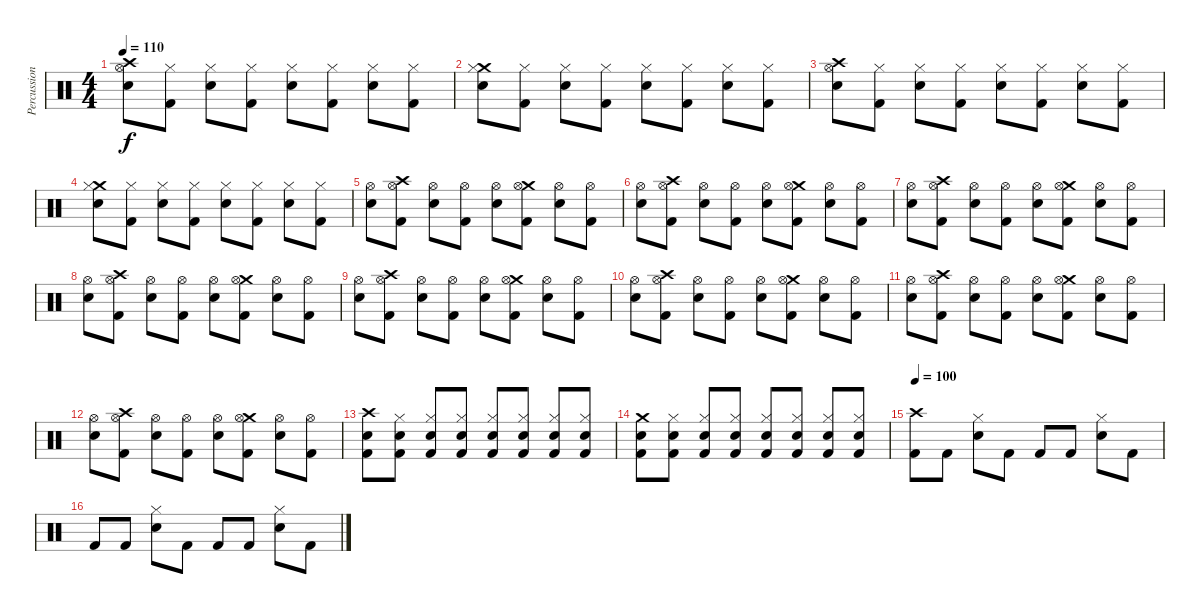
\track ("Percussion" "Percussion") {instrument percussion}
\staff {score}
\articulation defaults
\ts (4 4)
\tempo 110
\clef neutral
\ks c
("Crash high (hit)" "Hi-Hat (open)" "Electric Snare (hit)").8{dy f} ("Hi-Hat (closed)" "Kick (hit) 2").8 ("Hi-Hat (closed)" "Electric Snare (hit)").8 ("Hi-Hat (closed)" "Kick (hit) 2").8 ("Hi-Hat (closed)" "Electric Snare (hit)").8 ("Hi-Hat (closed)" "Kick (hit) 2").8 ("Hi-Hat (closed)" "Electric Snare (hit)").8 ("Hi-Hat (closed)" "Kick (hit) 2").8 |
("Crash medium (hit)" "Hi-Hat (closed)" "Electric Snare (hit)").8 ("Hi-Hat (closed)" "Kick (hit) 2").8 ("Hi-Hat (closed)" "Electric Snare (hit)").8 ("Hi-Hat (closed)" "Kick (hit) 2").8 ("Hi-Hat (closed)" "Electric Snare (hit)").8 ("Hi-Hat (closed)" "Kick (hit) 2").8 ("Hi-Hat (closed)" "Electric Snare (hit)").8 ("Hi-Hat (closed)" "Kick (hit) 2").8 |
("Crash high (hit)" "Hi-Hat (open)" "Electric Snare (hit)").8 ("Hi-Hat (closed)" "Kick (hit) 2").8 ("Hi-Hat (closed)" "Electric Snare (hit)").8 ("Hi-Hat (closed)" "Kick (hit) 2").8 ("Hi-Hat (closed)" "Electric Snare (hit)").8 ("Hi-Hat (closed)" "Kick (hit) 2").8 ("Hi-Hat (closed)" "Electric Snare (hit)").8 ("Hi-Hat (closed)" "Kick (hit) 2").8 |
("Crash medium (hit)" "Hi-Hat (closed)" "Electric Snare (hit)").8 ("Hi-Hat (closed)" "Kick (hit) 2").8 ("Hi-Hat (closed)" "Electric Snare (hit)").8 ("Hi-Hat (closed)" "Kick (hit) 2").8 ("Hi-Hat (closed)" "Electric Snare (hit)").8 ("Hi-Hat (closed)" "Kick (hit) 2").8 ("Hi-Hat (closed)" "Electric Snare (hit)").8 ("Hi-Hat (closed)" "Kick (hit) 2").8 |
("Hi-Hat (open)" "Electric Snare (hit)").8 ("Crash high (hit)" "Hi-Hat (open)" "Kick (hit) 2").8 ("Hi-Hat (open)" "Electric Snare (hit)").8 ("Hi-Hat (open)" "Kick (hit) 2").8 ("Hi-Hat (open)" "Electric Snare (hit)").8 ("Crash medium (hit)" "Hi-Hat (open)" "Kick (hit) 2").8 ("Hi-Hat (open)" "Electric Snare (hit)").8 ("Hi-Hat (open)" "Kick (hit) 2").8 |
("Hi-Hat (open)" "Electric Snare (hit)").8 ("Crash high (hit)" "Hi-Hat (open)" "Kick (hit) 2").8 ("Hi-Hat (open)" "Electric Snare (hit)").8 ("Hi-Hat (open)" "Kick (hit) 2").8 ("Hi-Hat (open)" "Electric Snare (hit)").8 ("Crash medium (hit)" "Hi-Hat (open)" "Kick (hit) 2").8 ("Hi-Hat (open)" "Electric Snare (hit)").8 ("Hi-Hat (open)" "Kick (hit) 2").8 |
("Hi-Hat (open)" "Electric Snare (hit)").8 ("Crash high (hit)" "Hi-Hat (open)" "Kick (hit) 2").8 ("Hi-Hat (open)" "Electric Snare (hit)").8 ("Hi-Hat (open)" "Kick (hit) 2").8 ("Hi-Hat (open)" "Electric Snare (hit)").8 ("Crash medium (hit)" "Hi-Hat (open)" "Kick (hit) 2").8 ("Hi-Hat (open)" "Electric Snare (hit)").8 ("Hi-Hat (open)" "Kick (hit) 2").8 |
("Hi-Hat (open)" "Electric Snare (hit)").8 ("Crash high (hit)" "Hi-Hat (open)" "Kick (hit) 2").8 ("Hi-Hat (open)" "Electric Snare (hit)").8 ("Hi-Hat (open)" "Kick (hit) 2").8 ("Hi-Hat (open)" "Electric Snare (hit)").8 ("Crash medium (hit)" "Hi-Hat (open)" "Kick (hit) 2").8 ("Hi-Hat (open)" "Electric Snare (hit)").8 ("Hi-Hat (open)" "Kick (hit) 2").8 |
("Hi-Hat (open)" "Electric Snare (hit)").8 ("Crash high (hit)" "Hi-Hat (open)" "Kick (hit) 2").8 ("Hi-Hat (open)" "Electric Snare (hit)").8 ("Hi-Hat (open)" "Kick (hit) 2").8 ("Hi-Hat (open)" "Electric Snare (hit)").8 ("Crash medium (hit)" "Hi-Hat (open)" "Kick (hit) 2").8 ("Hi-Hat (open)" "Electric Snare (hit)").8 ("Hi-Hat (open)" "Kick (hit) 2").8 |
("Hi-Hat (open)" "Electric Snare (hit)").8 ("Crash high (hit)" "Hi-Hat (open)" "Kick (hit) 2").8 ("Hi-Hat (open)" "Electric Snare (hit)").8 ("Hi-Hat (open)" "Kick (hit) 2").8 ("Hi-Hat (open)" "Electric Snare (hit)").8 ("Crash medium (hit)" "Hi-Hat (open)" "Kick (hit) 2").8 ("Hi-Hat (open)" "Electric Snare (hit)").8 ("Hi-Hat (open)" "Kick (hit) 2").8 |
("Hi-Hat (open)" "Electric Snare (hit)").8 ("Crash high (hit)" "Hi-Hat (open)" "Kick (hit) 2").8 ("Hi-Hat (open)" "Electric Snare (hit)").8 ("Hi-Hat (open)" "Kick (hit) 2").8 ("Hi-Hat (open)" "Electric Snare (hit)").8 ("Crash medium (hit)" "Hi-Hat (open)" "Kick (hit) 2").8 ("Hi-Hat (open)" "Electric Snare (hit)").8 ("Hi-Hat (open)" "Kick (hit) 2").8 |
("Hi-Hat (open)" "Electric Snare (hit)").8 ("Crash high (hit)" "Hi-Hat (open)" "Kick (hit) 2").8 ("Hi-Hat (open)" "Electric Snare (hit)").8 ("Hi-Hat (open)" "Kick (hit) 2").8 ("Hi-Hat (open)" "Electric Snare (hit)").8 ("Crash medium (hit)" "Hi-Hat (open)" "Kick (hit) 2").8 ("Hi-Hat (open)" "Electric Snare (hit)").8 ("Hi-Hat (open)" "Kick (hit) 2").8 |
("Crash high (hit)" "Electric Snare (hit)" "Kick (hit) 2").8 ("Hi-Hat (closed)" "Electric Snare (hit)" "Kick (hit) 2").8 ("Hi-Hat (closed)" "Electric Snare (hit)" "Kick (hit) 2").8 ("Hi-Hat (closed)" "Electric Snare (hit)" "Kick (hit) 2").8 ("Hi-Hat (closed)" "Electric Snare (hit)" "Kick (hit) 2").8 ("Hi-Hat (closed)" "Electric Snare (hit)" "Kick (hit) 2").8 ("Hi-Hat (closed)" "Electric Snare (hit)" "Kick (hit) 2").8 ("Hi-Hat (closed)" "Electric Snare (hit)" "Kick (hit) 2").8 |
("Crash medium (hit)" "Electric Snare (hit)" "Kick (hit) 2").8 ("Hi-Hat (closed)" "Electric Snare (hit)" "Kick (hit) 2").8 ("Hi-Hat (closed)" "Electric Snare (hit)" "Kick (hit) 2").8 ("Hi-Hat (closed)" "Electric Snare (hit)" "Kick (hit) 2").8 ("Hi-Hat (closed)" "Electric Snare (hit)" "Kick (hit) 2").8 ("Hi-Hat (closed)" "Electric Snare (hit)" "Kick (hit) 2").8 ("Hi-Hat (closed)" "Electric Snare (hit)" "Kick (hit) 2").8 ("Hi-Hat (closed)" "Electric Snare (hit)" "Kick (hit) 2").8 |
\tempo 100
("Crash high (hit)" "Kick (hit) 2").8 "Kick (hit) 2".8 ("Hi-Hat (closed)" "Electric Snare (hit)").8 "Kick (hit) 2".8 "Kick (hit) 2".8 "Kick (hit) 2".8 ("Hi-Hat (closed)" "Electric Snare (hit)").8 "Kick (hit) 2".8 |
"Kick (hit) 2".8 "Kick (hit) 2".8 ("Hi-Hat (closed)" "Electric Snare (hit)").8 "Kick (hit) 2".8 "Kick (hit) 2".8 "Kick (hit) 2".8 ("Hi-Hat (closed)" "Electric Snare (hit)").8 "Kick (hit) 2".8
